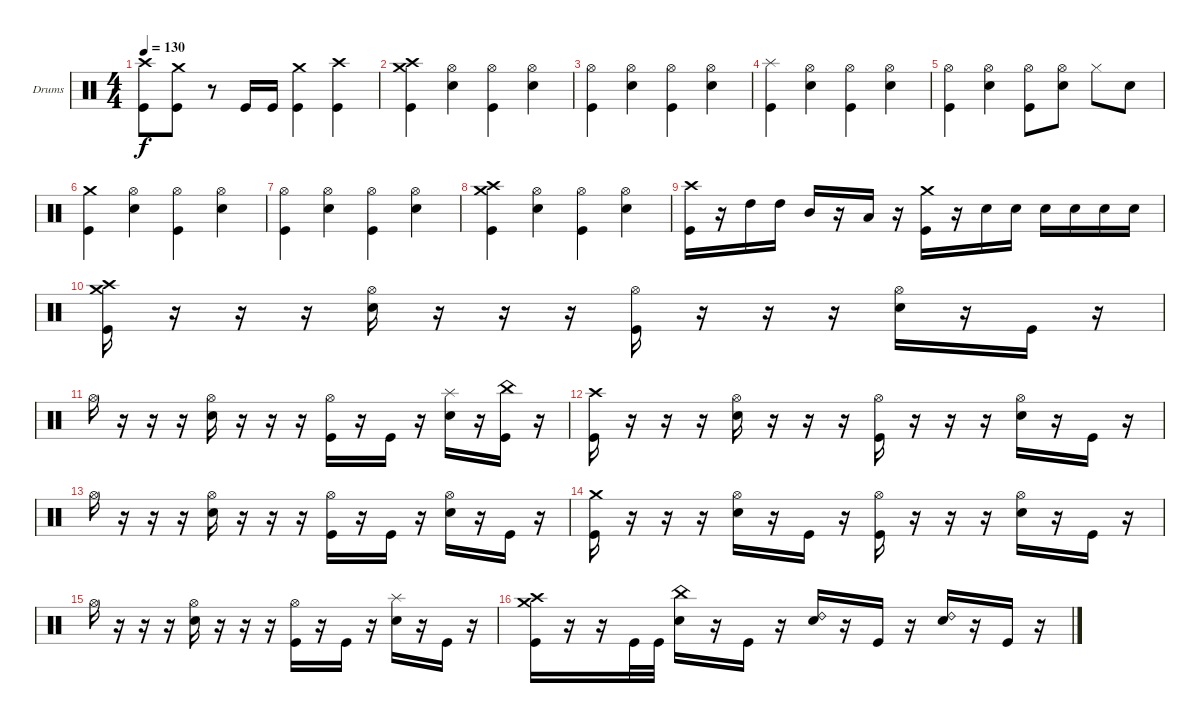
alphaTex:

\defaultSystemsLayout 4
\bracketExtendMode groupsimilarinstruments
\firstSystemTrackNameOrientation horizontal
\otherSystemsTrackNameOrientation horizontal
\track ("Drumkit" "Drums") {instrument percussion}
\staff {score}
\articulation defaults
\ts (4 4)
\tempo 130
\clef neutral
\scale
0.333333
\ks c
("Kick (hit)" "Crash high (hit)").8{dy f} ("Kick (hit)" "Crash medium (hit)").8 r.8 "Kick (hit)".16 "Kick (hit)".16 ("Kick (hit)" "Crash medium (hit)").4 ("Kick (hit)" "Crash high (hit)").4 |
\scale
0.333333 ("Kick (hit)" "Crash medium (hit)" "Crash high (hit)").4 ("Snare (hit) 2" "Hi-Hat (open)").4 ("Kick (hit)" "Hi-Hat (open)").4 ("Snare (hit) 2" "Hi-Hat (open)").4 |
\scale
0.333333 ("Kick (hit)" "Hi-Hat (open)").4 ("Snare (hit) 2" "Hi-Hat (open)").4 ("Kick (hit)" "Hi-Hat (open)").4 ("Snare (hit) 2" "Hi-Hat (open)").4 |
\scale
0.333333 ("Kick (hit)" "Splash (hit)").4 ("Snare (hit) 2" "Hi-Hat (open)").4 ("Kick (hit)" "Hi-Hat (open)").4 ("Snare (hit) 2" "Hi-Hat (open)").4 |
\scale
0.333333 ("Kick (hit)" "Hi-Hat (open)").4 ("Snare (hit) 2" "Hi-Hat (open)").4 ("Kick (hit)" "Hi-Hat (open)").8 ("Snare (hit) 2" "Hi-Hat (open)").8 "Hi-Hat (closed)".8 "Snare (hit) 2".8 |
\scale
0.333333 ("Kick (hit)" "Crash medium (hit)").4 ("Snare (hit) 2" "Hi-Hat (open)").4 ("Kick (hit)" "Hi-Hat (open)").4 ("Snare (hit) 2" "Hi-Hat (open)").4 |
\scale
0.333333 ("Kick (hit)" "Hi-Hat (open)").4 ("Snare (hit) 2" "Hi-Hat (open)").4 ("Kick (hit)" "Hi-Hat (open)").4 ("Snare (hit) 2" "Hi-Hat (open)").4 |
\scale
0.333333 ("Kick (hit)" "Crash medium (hit)" "Crash high (hit)").4 ("Snare (hit) 2" "Hi-Hat (open)").4 ("Kick (hit)" "Hi-Hat (open)").4 ("Snare (hit) 2" "Hi-Hat (open)").4 |
\scale
0.333333 ("Kick (hit)" "Crash high (hit)").16 r.16 "High Tom (hit)".16 "High Tom (hit)".16 "Mid Tom (hit)".16 r.16 "Low Tom (hit)".16 r.16 ("Kick (hit)" "Crash medium (hit)").16 r.16 "Snare (hit) 2".16 "Snare (hit) 2".16 "Snare (hit) 2".16 "Snare (hit) 2".16 "Snare (hit) 2".16 "Snare (hit) 2".16 |
\scale
0.333333 ("Kick (hit)" "Crash medium (hit)" "Crash high (hit)").16 r.16 r.16 r.16 ("Snare (hit) 2" "Hi-Hat (open)").16 r.16 r.16 r.16 ("Kick (hit)" "Hi-Hat (open)").16 r.16 r.16 r.16 ("Snare (hit) 2" "Hi-Hat (open)").16 r.16 "Kick (hit)".16 r.16 |
\scale
0.333333 "Hi-Hat (open)".16 r.16 r.16 r.16 ("Snare (hit) 2" "Hi-Hat (open)").16 r.16 r.16 r.16 ("Kick (hit)" "Hi-Hat (open)").16 r.16 "Kick (hit)".16 r.16 ("Snare (hit) 2" "Splash (hit)").16 r.16 ("Kick (hit)" "China (hit)").16 r.16 |
\scale
0.333333 ("Kick (hit)" "Crash high (hit)").16 r.16 r.16 r.16 ("Snare (hit) 2" "Hi-Hat (open)").16 r.16 r.16 r.16 ("Kick (hit)" "Hi-Hat (open)").16 r.16 r.16 r.16 ("Snare (hit) 2" "Hi-Hat (open)").16 r.16 "Kick (hit)".16 r.16 |
\scale
0.333333 "Hi-Hat (open)".16 r.16 r.16 r.16 ("Snare (hit) 2" "Hi-Hat (open)").16 r.16 r.16 r.16 ("Kick (hit)" "Hi-Hat (open)").16 r.16 "Kick (hit)".16 r.16 ("Snare (hit) 2" "Hi-Hat (open)").16 r.16 "Kick (hit)".16 r.16 |
\scale
0.333333 ("Kick (hit)" "Crash medium (hit)").16 r.16 r.16 r.16 ("Snare (hit) 2" "Hi-Hat (open)").16 r.16 "Kick (hit)".16 r.16 ("Kick (hit)" "Hi-Hat (open)").16 r.16 r.16 r.16 ("Snare (hit) 2" "Hi-Hat (open)").16 r.16 "Kick (hit)".16 r.16 |
\scale
0.333333 "Hi-Hat (open)".16 r.16 r.16 r.16 ("Snare (hit) 2" "Hi-Hat (open)").16 r.16 r.16 r.16 ("Kick (hit)" "Hi-Hat (open)").16 r.16 "Kick (hit)".16 r.16 ("Snare (hit) 2" "Splash (hit)").16 r.16 "Kick (hit)".16 r.16 |
\scale
0.333333 ("Kick (hit)" "Crash medium (hit)" "Crash high (hit)").16 r.16 r.16 "Kick (hit)".32 "Kick (hit)".32 ("Snare (hit) 2" "China (hit)").16 r.16 "Kick (hit)".16 r.16 ("Snare (hit) 2" "Ride (bell) 2").16 r.16 "Kick (hit)".16 r.16 ("Snare (hit) 2" "Ride (bell) 2").16 r.16 "Kick (hit)".16 r.16
